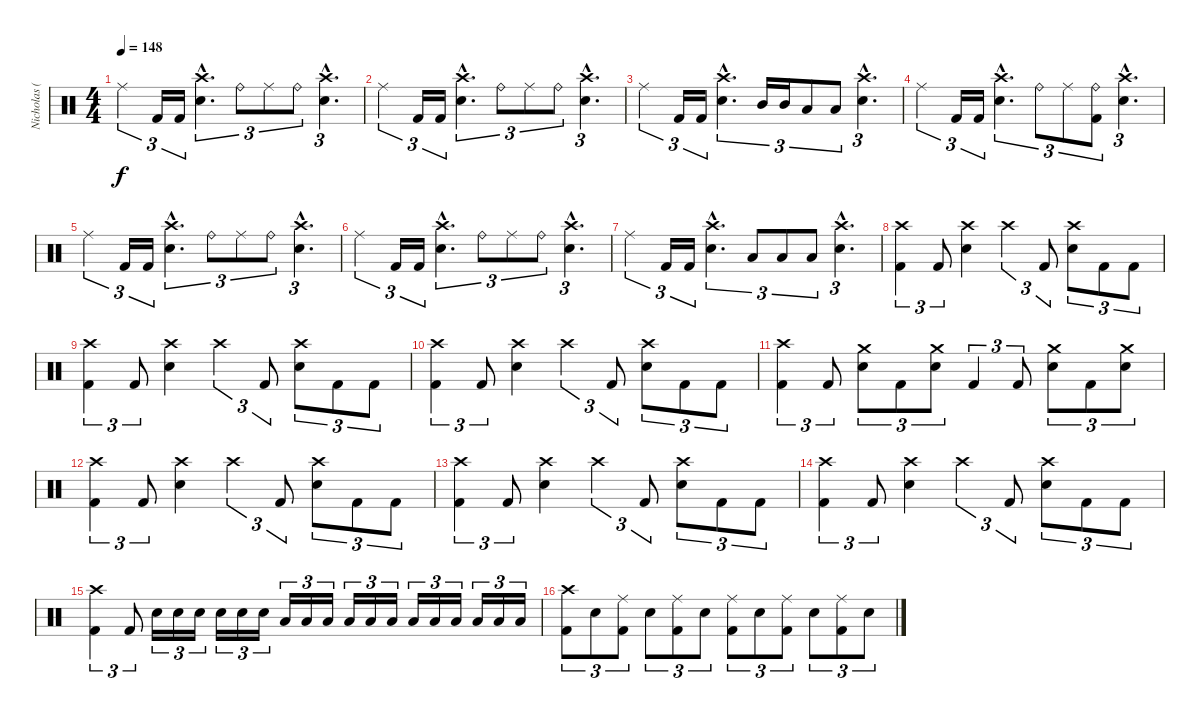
\track ("Nicholas (Drums)" "Nicholas (") {instrument percussion}
\staff {score}
\articulation defaults
\ts (4 4)
\tempo 148
\clef neutral
\ks c "Ride (middle)".4{tu (3 2) dy f} "Kick (hit) 2".16{tu (3 2)} "Kick (hit) 2".16{tu (3 2)}
("Crash high (hit)"{hac} "Electric Snare (hit)"{hac}).4{d tu (3 2)} "Ride (bell)".8{tu (3 2)} "Ride (middle)".8{tu (3 2)} "Ride (bell)".8{tu (3 2)} ("Crash high (hit)"{hac} "Electric Snare (hit)"{hac}).4{d tu (3 2)} |
"Ride (middle)".4{tu (3 2)} "Kick (hit) 2".16{tu (3 2)} "Kick (hit) 2".16{tu (3 2)} ("Crash high (hit)"{hac} "Electric Snare (hit)"{hac}).4{d tu (3 2)} "Ride (bell)".8{tu (3 2)} "Ride (middle)".8{tu (3 2)} "Ride (bell)".8{tu (3 2)} ("Crash high (hit)"{hac} "Electric Snare (hit)"{hac}).4{d tu (3 2)} |
"Ride (middle)".4{tu (3 2)} "Kick (hit) 2".16{tu (3 2)} "Kick (hit) 2".16{tu (3 2)} ("Crash high (hit)"{hac} "Electric Snare (hit)"{hac}).4{d tu (3 2)} "Mid Tom (hit)".16{tu (3 2)} "Mid Tom (hit)".16{tu (3 2)} "Low Tom (hit)".8{tu (3 2)} "Low Floor Tom (hit)".8{tu (3 2)} ("Crash high (hit)"{hac} "Electric Snare (hit)"{hac}).4{d tu (3 2)} |
"Ride (middle)".4{tu (3 2)} "Kick (hit) 2".16{tu (3 2)} "Kick (hit) 2".16{tu (3 2)} ("Crash high (hit)"{hac} "Electric Snare (hit)"{hac}).4{d tu (3 2)} "Ride (bell)".8{tu (3 2)} "Ride (middle)".8{tu (3 2)} ("Ride (bell)" "Kick (hit) 2").8{tu (3 2)} ("Crash high (hit)"{hac} "Electric Snare (hit)"{hac}).4{d tu (3 2)} |
"Ride (middle)".4{tu (3 2)} "Kick (hit) 2".16{tu (3 2)} "Kick (hit) 2".16{tu (3 2)} ("Crash high (hit)"{hac} "Electric Snare (hit)"{hac}).4{d tu (3 2)} "Ride (bell)".8{tu (3 2)} "Ride (middle)".8{tu (3 2)} "Ride (bell)".8{tu (3 2)} ("Crash high (hit)"{hac} "Electric Snare (hit)"{hac}).4{d tu (3 2)} |
"Ride (middle)".4{tu (3 2)} "Kick (hit) 2".16{tu (3 2)} "Kick (hit) 2".16{tu (3 2)} ("Crash high (hit)"{hac} "Electric Snare (hit)"{hac}).4{d tu (3 2)} "Ride (bell)".8{tu (3 2)} "Ride (middle)".8{tu (3 2)} "Ride (bell)".8{tu (3 2)} ("Crash high (hit)"{hac} "Electric Snare (hit)"{hac}).4{d tu (3 2)} |
"Ride (middle)".4{tu (3 2)} "Kick (hit) 2".16{tu (3 2)} "Kick (hit) 2".16{tu (3 2)} ("Crash high (hit)"{hac} "Electric Snare (hit)"{hac}).4{d tu (3 2)} "Low Floor Tom (hit)".8{tu (3 2)} "Low Floor Tom (hit)".8{tu (3 2)} "Low Floor Tom (hit)".8{tu (3 2)} ("Crash high (hit)"{hac} "Electric Snare (hit)"{hac}).4{d tu (3 2)} |
("Crash high (hit)" "Kick (hit) 2").4{tu (3 2)} "Kick (hit) 2".8{tu (3 2)} ("Crash high (hit)" "Electric Snare (hit)").4 "Crash high (hit)".4{tu (3 2)} "Kick (hit) 2".8{tu (3 2)} ("Crash high (hit)" "Electric Snare (hit)").8{tu (3 2)} "Kick (hit) 2".8{tu (3 2)} "Kick (hit) 2".8{tu (3 2)} |
("Crash high (hit)" "Kick (hit) 2").4{tu (3 2)} "Kick (hit) 2".8{tu (3 2)} ("Crash high (hit)" "Electric Snare (hit)").4 "Crash high (hit)".4{tu (3 2)} "Kick (hit) 2".8{tu (3 2)} ("Crash high (hit)" "Electric Snare (hit)").8{tu (3 2)} "Kick (hit) 2".8{tu (3 2)} "Kick (hit) 2".8{tu (3 2)} |
("Crash high (hit)" "Kick (hit) 2").4{tu (3 2)} "Kick (hit) 2".8{tu (3 2)} ("Crash high (hit)" "Electric Snare (hit)").4 "Crash high (hit)".4{tu (3 2)} "Kick (hit) 2".8{tu (3 2)} ("Crash high (hit)" "Electric Snare (hit)").8{tu (3 2)} "Kick (hit) 2".8{tu (3 2)} "Kick (hit) 2".8{tu (3 2)} |
("Crash high (hit)" "Kick (hit) 2").4{tu (3 2)} "Kick (hit) 2".8{tu (3 2)} ("Crash medium (hit)" "Electric Snare (hit)").8{tu (3 2)} "Kick (hit) 2".8{tu (3 2)} ("Crash medium (hit)" "Electric Snare (hit)").8{tu (3 2)} "Kick (hit) 2".4{tu (3 2)} "Kick (hit) 2".8{tu (3 2)} ("Crash medium (hit)" "Electric Snare (hit)").8{tu (3 2)} "Kick (hit) 2".8{tu (3 2)} ("Crash medium (hit)" "Electric Snare (hit)").8{tu (3 2)} |
("Crash high (hit)" "Kick (hit) 2").4{tu (3 2)} "Kick (hit) 2".8{tu (3 2)} ("Crash high (hit)" "Electric Snare (hit)").4 "Crash high (hit)".4{tu (3 2)} "Kick (hit) 2".8{tu (3 2)} ("Crash high (hit)" "Electric Snare (hit)").8{tu (3 2)} "Kick (hit) 2".8{tu (3 2)} "Kick (hit) 2".8{tu (3 2)} |
("Crash high (hit)" "Kick (hit) 2").4{tu (3 2)} "Kick (hit) 2".8{tu (3 2)} ("Crash high (hit)" "Electric Snare (hit)").4 "Crash high (hit)".4{tu (3 2)} "Kick (hit) 2".8{tu (3 2)} ("Crash high (hit)" "Electric Snare (hit)").8{tu (3 2)} "Kick (hit) 2".8{tu (3 2)} "Kick (hit) 2".8{tu (3 2)} |
("Crash high (hit)" "Kick (hit) 2").4{tu (3 2)} "Kick (hit) 2".8{tu (3 2)} ("Crash high (hit)" "Electric Snare (hit)").4 "Crash high (hit)".4{tu (3 2)} "Kick (hit) 2".8{tu (3 2)} ("Crash high (hit)" "Electric Snare (hit)").8{tu (3 2)} "Kick (hit) 2".8{tu (3 2)} "Kick (hit) 2".8{tu (3 2)} |
("Crash high (hit)" "Kick (hit) 2").4{tu (3 2)} "Kick (hit) 2".8{tu (3 2)} "Electric Snare (hit)".16{tu (3 2)} "Electric Snare (hit)".16{tu (3 2)} "Electric Snare (hit)".16{tu (3 2)} "Electric Snare (hit)".16{tu (3 2)} "Electric Snare (hit)".16{tu (3 2)} "Electric Snare (hit)".16{tu (3 2)} "Low Tom (hit)".16{tu (3 2)} "Low Tom (hit)".16{tu (3 2)} "Low Tom (hit)".16{tu (3 2)} "Low Tom (hit)".16{tu (3 2)} "Low Tom (hit)".16{tu (3 2)} "Low Tom (hit)".16{tu (3 2)} "Low Floor Tom (hit)".16{tu (3 2)} "Low Floor Tom (hit)".16{tu (3 2)} "Low Floor Tom (hit)".16{tu (3 2)} "Low Floor Tom (hit)".16{tu (3 2)} "Low Floor Tom (hit)".16{tu (3 2)} "Low Floor Tom (hit)".16{tu (3 2)} |
("Crash high (hit)" "Kick (hit) 2").8{tu (3 2)} "Electric Snare (hit)".8{tu (3 2)} ("Ride (middle)" "Kick (hit) 2").8{tu (3 2)} "Electric Snare (hit)".8{tu (3 2)} ("Ride (middle)" "Kick (hit) 2").8{tu (3 2)} "Electric Snare (hit)".8{tu (3 2)} ("Ride (middle)" "Kick (hit) 2").8{tu (3 2)} "Electric Snare (hit)".8{tu (3 2)} ("Ride (middle)" "Kick (hit) 2").8{tu (3 2)} "Electric Snare (hit)".8{tu (3 2)} ("Ride (middle)" "Kick (hit) 2").8{tu (3 2)} "Electric Snare (hit)".8{tu (3 2)}
